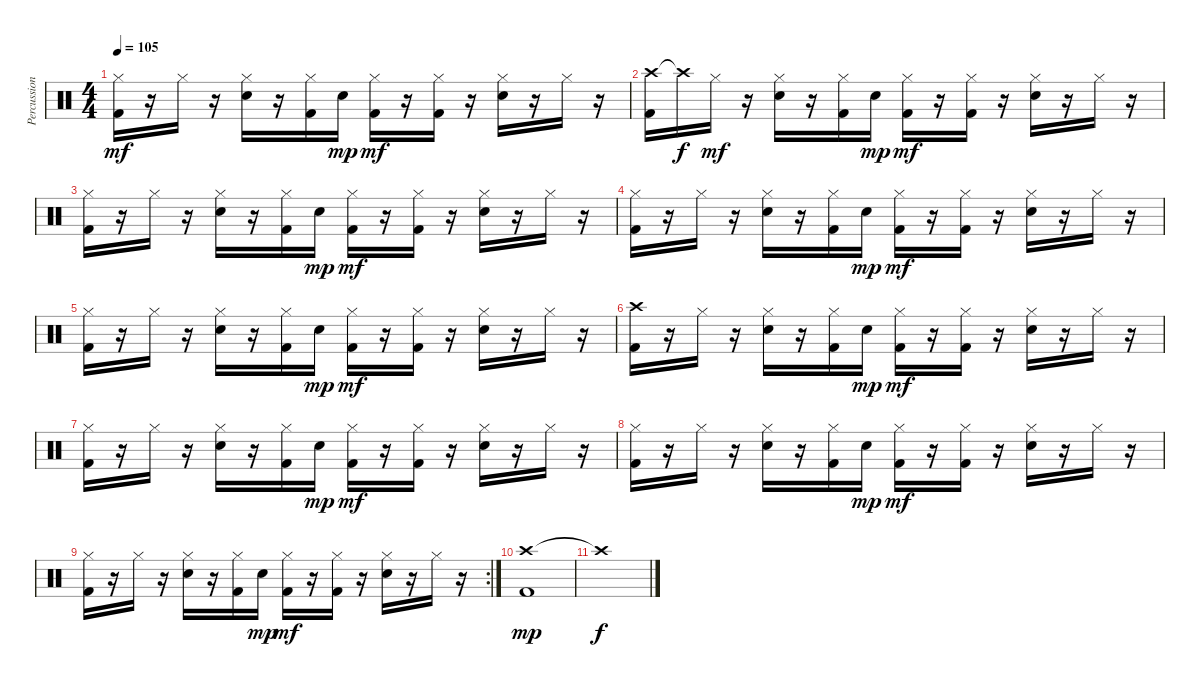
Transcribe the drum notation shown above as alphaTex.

\track ("Percussion" "Percussion") {instrument percussion}
\staff {score}
\articulation defaults
\ts (4 4)
\tempo 105
\clef neutral
\ks c
("Hi-Hat (closed)" "Kick (hit) 2").16{dy mf} r.16 "Hi-Hat (closed)".16 r.16 ("Hi-Hat (closed)" "Electric Snare (hit)").16 r.16 ("Hi-Hat (closed)" "Kick (hit) 2").16 "Electric Snare (hit)".16{dy mp} ("Hi-Hat (closed)" "Kick (hit) 2").16{dy mf} r.16 ("Hi-Hat (closed)" "Kick (hit) 2").16 r.16 ("Hi-Hat (closed)" "Electric Snare (hit)").16 r.16 "Hi-Hat (closed)".16 r.16 |
("Crash high (hit)" "Kick (hit) 2").16{volume 16} "Crash high (hit)"{t}.16{dy f} "Hi-Hat (closed)".16{dy mf} r.16 ("Hi-Hat (closed)" "Electric Snare (hit)").16 r.16 ("Hi-Hat (closed)" "Kick (hit) 2").16 "Electric Snare (hit)".16{dy mp} ("Hi-Hat (closed)" "Kick (hit) 2").16{dy mf} r.16 ("Hi-Hat (closed)" "Kick (hit) 2").16 r.16 ("Hi-Hat (closed)" "Electric Snare (hit)").16 r.16 "Hi-Hat (closed)".16 r.16 |
("Hi-Hat (closed)" "Kick (hit) 2").16 r.16 "Hi-Hat (closed)".16 r.16 ("Hi-Hat (closed)" "Electric Snare (hit)").16 r.16 ("Hi-Hat (closed)" "Kick (hit) 2").16 "Electric Snare (hit)".16{dy mp} ("Hi-Hat (closed)" "Kick (hit) 2").16{dy mf} r.16 ("Hi-Hat (closed)" "Kick (hit) 2").16 r.16 ("Hi-Hat (closed)" "Electric Snare (hit)").16 r.16 "Hi-Hat (closed)".16 r.16 |
("Hi-Hat (closed)" "Kick (hit) 2").16 r.16 "Hi-Hat (closed)".16 r.16 ("Hi-Hat (closed)" "Electric Snare (hit)").16 r.16 ("Hi-Hat (closed)" "Kick (hit) 2").16 "Electric Snare (hit)".16{dy mp} ("Hi-Hat (closed)" "Kick (hit) 2").16{dy mf} r.16 ("Hi-Hat (closed)" "Kick (hit) 2").16 r.16 ("Hi-Hat (closed)" "Electric Snare (hit)").16 r.16 "Hi-Hat (closed)".16 r.16 |
("Hi-Hat (closed)" "Kick (hit) 2").16 r.16 "Hi-Hat (closed)".16 r.16 ("Hi-Hat (closed)" "Electric Snare (hit)").16 r.16 ("Hi-Hat (closed)" "Kick (hit) 2").16 "Electric Snare (hit)".16{dy mp} ("Hi-Hat (closed)" "Kick (hit) 2").16{dy mf} r.16 ("Hi-Hat (closed)" "Kick (hit) 2").16 r.16 ("Hi-Hat (closed)" "Electric Snare (hit)").16 r.16 "Hi-Hat (closed)".16 r.16 |
("Crash high (hit)" "Kick (hit) 2").16 r.16 "Hi-Hat (closed)".16 r.16 ("Hi-Hat (closed)" "Electric Snare (hit)").16 r.16 ("Hi-Hat (closed)" "Kick (hit) 2").16 "Electric Snare (hit)".16{dy mp} ("Hi-Hat (closed)" "Kick (hit) 2").16{dy mf} r.16 ("Hi-Hat (closed)" "Kick (hit) 2").16 r.16 ("Hi-Hat (closed)" "Electric Snare (hit)").16 r.16 "Hi-Hat (closed)".16 r.16 |
("Hi-Hat (closed)" "Kick (hit) 2").16 r.16 "Hi-Hat (closed)".16 r.16 ("Hi-Hat (closed)" "Electric Snare (hit)").16 r.16 ("Hi-Hat (closed)" "Kick (hit) 2").16 "Electric Snare (hit)".16{dy mp} ("Hi-Hat (closed)" "Kick (hit) 2").16{dy mf} r.16 ("Hi-Hat (closed)" "Kick (hit) 2").16 r.16 ("Hi-Hat (closed)" "Electric Snare (hit)").16 r.16 "Hi-Hat (closed)".16 r.16 |
("Hi-Hat (closed)" "Kick (hit) 2").16 r.16 "Hi-Hat (closed)".16 r.16 ("Hi-Hat (closed)" "Electric Snare (hit)").16 r.16 ("Hi-Hat (closed)" "Kick (hit) 2").16 "Electric Snare (hit)".16{dy mp} ("Hi-Hat (closed)" "Kick (hit) 2").16{dy mf} r.16 ("Hi-Hat (closed)" "Kick (hit) 2").16 r.16 ("Hi-Hat (closed)" "Electric Snare (hit)").16 r.16 "Hi-Hat (closed)".16 r.16 |
\rc 2
("Hi-Hat (closed)" "Kick (hit) 2").16 r.16 "Hi-Hat (closed)".16 r.16 ("Hi-Hat (closed)" "Electric Snare (hit)").16 r.16 ("Hi-Hat (closed)" "Kick (hit) 2").16 "Electric Snare (hit)".16{dy mp} ("Hi-Hat (closed)" "Kick (hit) 2").16{dy mf} r.16 ("Hi-Hat (closed)" "Kick (hit) 2").16 r.16 ("Hi-Hat (closed)" "Electric Snare (hit)").16 r.16 "Hi-Hat (closed)".16 r.16 |
("Crash high (hit)" "Kick (hit) 2").1{dy mp} |
"Crash high (hit)"{t}.1{dy f}
